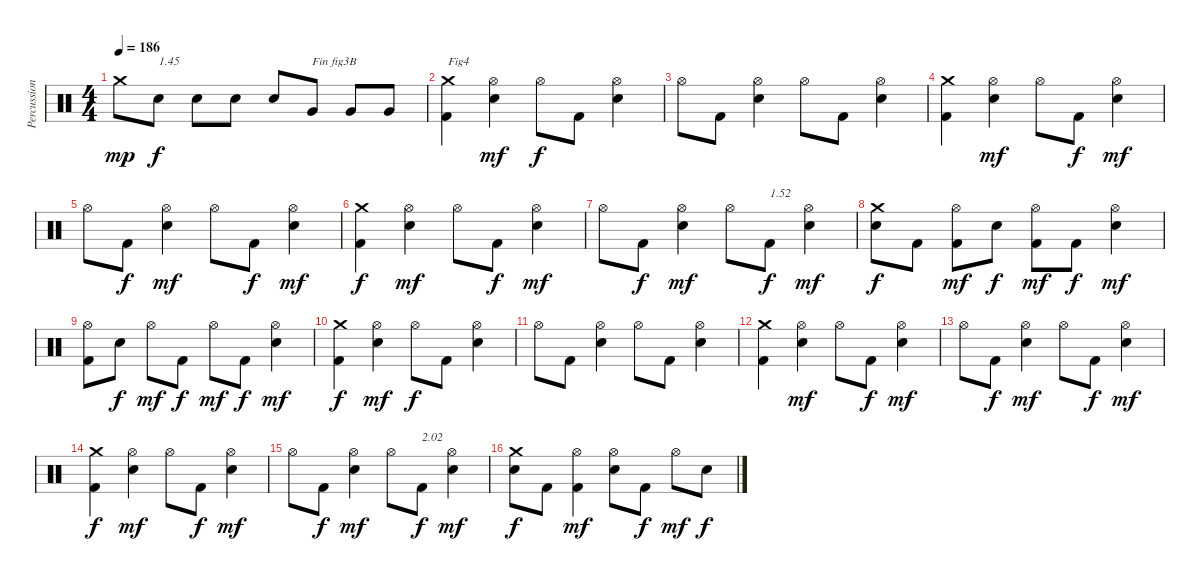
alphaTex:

\track ("Percussions" "Percussion") {instrument percussion}
\staff {score}
\articulation defaults
\ts (4 4)
\tempo 186
\clef neutral
\ks c "Crash medium (hit)".8{dy mp} "Electric Snare (hit)".8{txt "1.45" dy f} "Electric Snare (hit)".8 "Electric Snare (hit)".8 "Electric Snare (hit)".8 "Very Low Tom (hit)".8{txt "Fin fig3B"} "Very Low Tom (hit)".8 "Very Low Tom (hit)".8
|
("Kick (hit) 2" "Crash medium (hit)").4{txt "Fig4"} ("Electric Snare (hit)" "Hi-Hat (open)").4{dy mf} "Hi-Hat (open)".8{dy f} "Kick (hit) 2".8 ("Electric Snare (hit)" "Hi-Hat (open)").4 |
"Hi-Hat (open)".8 "Kick (hit) 2".8 ("Electric Snare (hit)" "Hi-Hat (open)").4 "Hi-Hat (open)".8 "Kick (hit) 2".8 ("Electric Snare (hit)" "Hi-Hat (open)").4 |
("Kick (hit) 2" "Crash medium (hit)").4 ("Electric Snare (hit)" "Hi-Hat (open)").4{dy mf} "Hi-Hat (open)".8 "Kick (hit) 2".8{dy f} ("Electric Snare (hit)" "Hi-Hat (open)").4{dy mf} |
"Hi-Hat (open)".8 "Kick (hit) 2".8{dy f} ("Electric Snare (hit)" "Hi-Hat (open)").4{dy mf} "Hi-Hat (open)".8 "Kick (hit) 2".8{dy f} ("Electric Snare (hit)" "Hi-Hat (open)").4{dy mf} |
("Kick (hit) 2" "Crash medium (hit)").4{dy f} ("Electric Snare (hit)" "Hi-Hat (open)").4{dy mf} "Hi-Hat (open)".8 "Kick (hit) 2".8{dy f} ("Electric Snare (hit)" "Hi-Hat (open)").4{dy mf} |
"Hi-Hat (open)".8 "Kick (hit) 2".8{dy f} ("Electric Snare (hit)" "Hi-Hat (open)").4{dy mf} "Hi-Hat (open)".8 "Kick (hit) 2".8{txt "1.52" dy f} ("Electric Snare (hit)" "Hi-Hat (open)").4{dy mf} |
("Electric Snare (hit)" "Crash medium (hit)").8{dy f} "Kick (hit) 2".8 ("Kick (hit) 2" "Hi-Hat (open)").8{dy mf} "Electric Snare (hit)".8{dy f} ("Kick (hit) 2" "Hi-Hat (open)").8{dy mf} "Kick (hit) 2".8{dy f} ("Electric Snare (hit)" "Hi-Hat (open)").4{dy mf} |
("Kick (hit) 2" "Hi-Hat (open)").8 "Electric Snare (hit)".8{dy f} "Hi-Hat (open)".8{dy mf} "Kick (hit) 2".8{dy f} "Hi-Hat (open)".8{dy mf} "Kick (hit) 2".8{dy f} ("Electric Snare (hit)" "Hi-Hat (open)").4{dy mf} |
("Kick (hit) 2" "Crash medium (hit)").4{dy f} ("Electric Snare (hit)" "Hi-Hat (open)").4{dy mf} "Hi-Hat (open)".8{dy f} "Kick (hit) 2".8 ("Electric Snare (hit)" "Hi-Hat (open)").4 |
"Hi-Hat (open)".8 "Kick (hit) 2".8 ("Electric Snare (hit)" "Hi-Hat (open)").4 "Hi-Hat (open)".8 "Kick (hit) 2".8 ("Electric Snare (hit)" "Hi-Hat (open)").4 |
("Kick (hit) 2" "Crash medium (hit)").4 ("Electric Snare (hit)" "Hi-Hat (open)").4{dy mf} "Hi-Hat (open)".8 "Kick (hit) 2".8{dy f} ("Electric Snare (hit)" "Hi-Hat (open)").4{dy mf} |
"Hi-Hat (open)".8 "Kick (hit) 2".8{dy f} ("Electric Snare (hit)" "Hi-Hat (open)").4{dy mf} "Hi-Hat (open)".8 "Kick (hit) 2".8{dy f} ("Electric Snare (hit)" "Hi-Hat (open)").4{dy mf} |
("Kick (hit) 2" "Crash medium (hit)").4{dy f} ("Electric Snare (hit)" "Hi-Hat (open)").4{dy mf} "Hi-Hat (open)".8 "Kick (hit) 2".8{dy f} ("Electric Snare (hit)" "Hi-Hat (open)").4{dy mf} |
"Hi-Hat (open)".8 "Kick (hit) 2".8{dy f} ("Electric Snare (hit)" "Hi-Hat (open)").4{dy mf} "Hi-Hat (open)".8 "Kick (hit) 2".8{txt "2.02" dy f} ("Electric Snare (hit)" "Hi-Hat (open)").4{dy mf} |
("Electric Snare (hit)" "Crash medium (hit)").8{dy f} "Kick (hit) 2".8 ("Kick (hit) 2" "Hi-Hat (open)").4{dy mf} ("Electric Snare (hit)" "Hi-Hat (open)").8 "Kick (hit) 2".8{dy f} "Hi-Hat (open)".8{dy mf} "Electric Snare (hit)".8{dy f}
